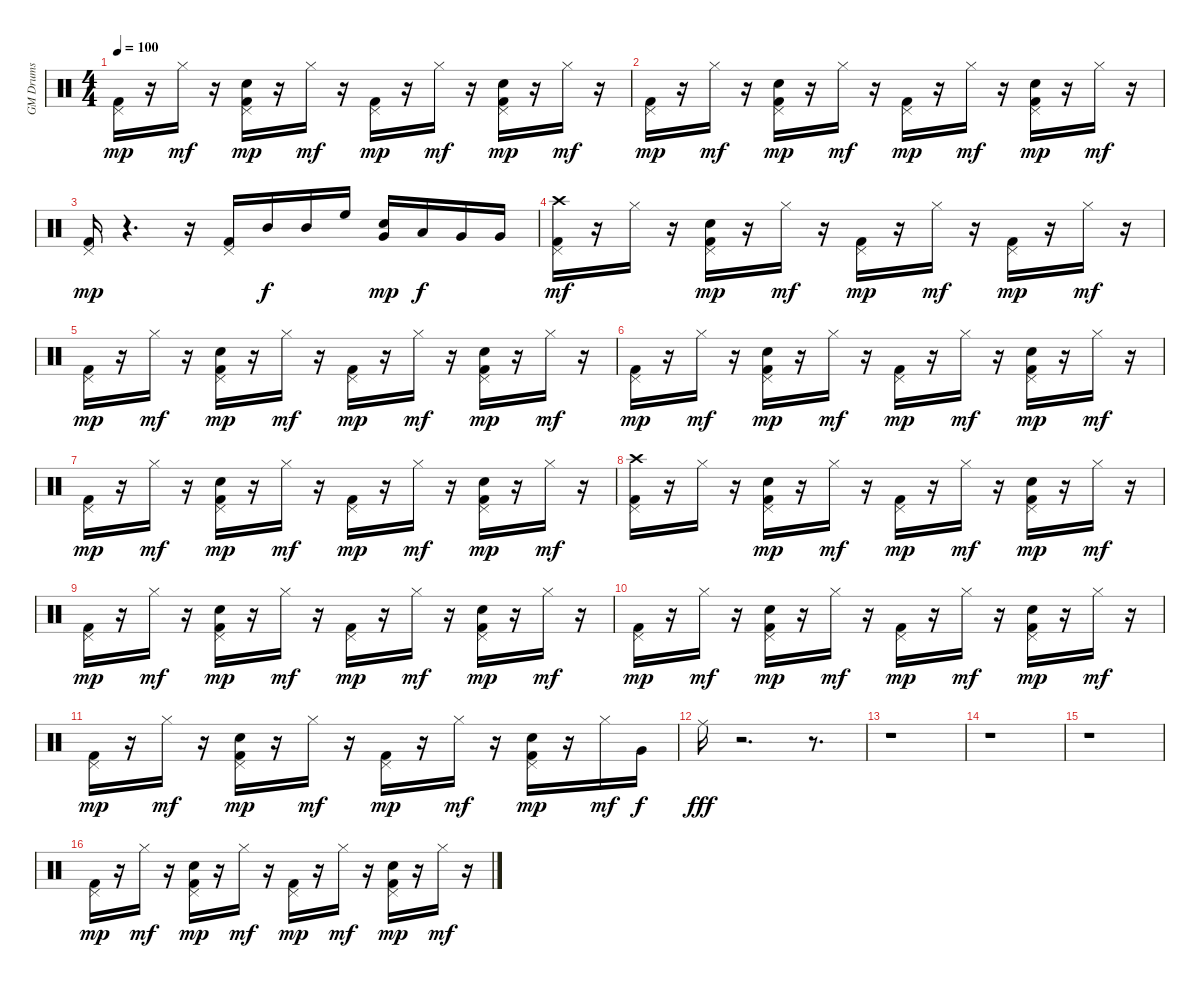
\track ("GM Drums" "GM Drums") {instrument percussion}
\staff {score}
\articulation defaults
\ts (4 4)
\tempo 100
\clef neutral
\ks c
("Kick (hit) 2" "Pedal Hi-Hat (hit)").16{dy mp} r.16 "Hi-Hat (closed)".16{dy mf} r.16 ("Kick (hit) 2" "Snare (hit) 2" "Pedal Hi-Hat (hit)").16{dy mp} r.16 "Hi-Hat (closed)".16{dy mf} r.16 ("Kick (hit) 2" "Pedal Hi-Hat (hit)").16{dy mp} r.16 "Hi-Hat (closed)".16{dy mf} r.16 ("Kick (hit) 2" "Snare (hit) 2" "Pedal Hi-Hat (hit)").16{dy mp} r.16 "Hi-Hat (closed)".16{dy mf} r.16 |
("Kick (hit) 2" "Pedal Hi-Hat (hit)").16{dy mp} r.16 "Hi-Hat (closed)".16{dy mf} r.16 ("Kick (hit) 2" "Snare (hit) 2" "Pedal Hi-Hat (hit)").16{dy mp} r.16 "Hi-Hat (closed)".16{dy mf} r.16 ("Kick (hit) 2" "Pedal Hi-Hat (hit)").16{dy mp} r.16 "Hi-Hat (closed)".16{dy mf} r.16 ("Kick (hit) 2" "Snare (hit) 2" "Pedal Hi-Hat (hit)").16{dy mp} r.16 "Hi-Hat (closed)".16{dy mf} r.16 |
("Kick (hit) 2" "Pedal Hi-Hat (hit)").16{dy mp} r.4{d} r.16 ("Kick (hit) 2" "Pedal Hi-Hat (hit)").16 "Mid Tom (hit)".16{dy f} "Mid Tom (hit)".16 "High Floor Tom (hit)".16 ("Snare (hit) 2" "Very Low Tom (hit)").16{dy mp} "Low Tom (hit)".16{dy f} "Very Low Tom (hit)".16 "Very Low Tom (hit)".16 |
("Kick (hit) 2" "Pedal Hi-Hat (hit)" "Crash high (hit)").16{dy mf} r.16 "Hi-Hat (closed)".16 r.16 ("Kick (hit) 2" "Snare (hit) 2" "Pedal Hi-Hat (hit)").16{dy mp} r.16 "Hi-Hat (closed)".16{dy mf} r.16 ("Kick (hit) 2" "Pedal Hi-Hat (hit)").16{dy mp} r.16 "Hi-Hat (closed)".16{dy mf} r.16 ("Kick (hit) 2" "Pedal Hi-Hat (hit)").16{dy mp} r.16 "Hi-Hat (closed)".16{dy mf} r.16 |
("Kick (hit) 2" "Pedal Hi-Hat (hit)").16{dy mp} r.16 "Hi-Hat (closed)".16{dy mf} r.16 ("Kick (hit) 2" "Snare (hit) 2" "Pedal Hi-Hat (hit)").16{dy mp} r.16 "Hi-Hat (closed)".16{dy mf} r.16 ("Kick (hit) 2" "Pedal Hi-Hat (hit)").16{dy mp} r.16 "Hi-Hat (closed)".16{dy mf} r.16 ("Kick (hit) 2" "Snare (hit) 2" "Pedal Hi-Hat (hit)").16{dy mp} r.16 "Hi-Hat (closed)".16{dy mf} r.16 |
("Kick (hit) 2" "Pedal Hi-Hat (hit)").16{dy mp} r.16 "Hi-Hat (closed)".16{dy mf} r.16 ("Kick (hit) 2" "Snare (hit) 2" "Pedal Hi-Hat (hit)").16{dy mp} r.16 "Hi-Hat (closed)".16{dy mf} r.16 ("Kick (hit) 2" "Pedal Hi-Hat (hit)").16{dy mp} r.16 "Hi-Hat (closed)".16{dy mf} r.16 ("Kick (hit) 2" "Snare (hit) 2" "Pedal Hi-Hat (hit)").16{dy mp} r.16 "Hi-Hat (closed)".16{dy mf} r.16 |
("Kick (hit) 2" "Pedal Hi-Hat (hit)").16{dy mp} r.16 "Hi-Hat (closed)".16{dy mf} r.16 ("Kick (hit) 2" "Snare (hit) 2" "Pedal Hi-Hat (hit)").16{dy mp} r.16 "Hi-Hat (closed)".16{dy mf} r.16 ("Kick (hit) 2" "Pedal Hi-Hat (hit)").16{dy mp} r.16 "Hi-Hat (closed)".16{dy mf} r.16 ("Kick (hit) 2" "Snare (hit) 2" "Pedal Hi-Hat (hit)").16{dy mp} r.16 "Hi-Hat (closed)".16{dy mf} r.16 |
("Kick (hit) 2" "Pedal Hi-Hat (hit)" "Crash high (hit)").16 r.16 "Hi-Hat (closed)".16 r.16 ("Kick (hit) 2" "Snare (hit) 2" "Pedal Hi-Hat (hit)").16{dy mp} r.16 "Hi-Hat (closed)".16{dy mf} r.16 ("Kick (hit) 2" "Pedal Hi-Hat (hit)").16{dy mp} r.16 "Hi-Hat (closed)".16{dy mf} r.16 ("Kick (hit) 2" "Snare (hit) 2" "Pedal Hi-Hat (hit)").16{dy mp} r.16 "Hi-Hat (closed)".16{dy mf} r.16 |
("Kick (hit) 2" "Pedal Hi-Hat (hit)").16{dy mp} r.16 "Hi-Hat (closed)".16{dy mf} r.16 ("Kick (hit) 2" "Snare (hit) 2" "Pedal Hi-Hat (hit)").16{dy mp} r.16 "Hi-Hat (closed)".16{dy mf} r.16 ("Kick (hit) 2" "Pedal Hi-Hat (hit)").16{dy mp} r.16 "Hi-Hat (closed)".16{dy mf} r.16 ("Kick (hit) 2" "Snare (hit) 2" "Pedal Hi-Hat (hit)").16{dy mp} r.16 "Hi-Hat (closed)".16{dy mf} r.16 |
("Kick (hit) 2" "Pedal Hi-Hat (hit)").16{dy mp} r.16 "Hi-Hat (closed)".16{dy mf} r.16 ("Kick (hit) 2" "Snare (hit) 2" "Pedal Hi-Hat (hit)").16{dy mp} r.16 "Hi-Hat (closed)".16{dy mf} r.16 ("Kick (hit) 2" "Pedal Hi-Hat (hit)").16{dy mp} r.16 "Hi-Hat (closed)".16{dy mf} r.16 ("Kick (hit) 2" "Snare (hit) 2" "Pedal Hi-Hat (hit)").16{dy mp} r.16 "Hi-Hat (closed)".16{dy mf} r.16 |
("Kick (hit) 2" "Pedal Hi-Hat (hit)").16{dy mp} r.16 "Hi-Hat (closed)".16{dy mf} r.16 ("Kick (hit) 2" "Snare (hit) 2" "Pedal Hi-Hat (hit)").16{dy mp} r.16 "Hi-Hat (closed)".16{dy mf} r.16 ("Kick (hit) 2" "Pedal Hi-Hat (hit)").16{dy mp} r.16 "Hi-Hat (closed)".16{dy mf} r.16 ("Kick (hit) 2" "Snare (hit) 2" "Pedal Hi-Hat (hit)").16{dy mp} r.16 "Hi-Hat (closed)".16{dy mf} "Very Low Tom (hit)".16{dy f} |
"Ride (middle)".16{dy fff} r.2{d} r.8{d} |
r.1 |
r.1 |
r.1 |
("Kick (hit) 2" "Pedal Hi-Hat (hit)").16{dy mp} r.16 "Hi-Hat (closed)".16{dy mf} r.16 ("Kick (hit) 2" "Snare (hit) 2" "Pedal Hi-Hat (hit)").16{dy mp} r.16 "Hi-Hat (closed)".16{dy mf} r.16 ("Kick (hit) 2" "Pedal Hi-Hat (hit)").16{dy mp} r.16 "Hi-Hat (closed)".16{dy mf} r.16 ("Kick (hit) 2" "Snare (hit) 2" "Pedal Hi-Hat (hit)").16{dy mp} r.16 "Hi-Hat (closed)".16{dy mf} r.16
